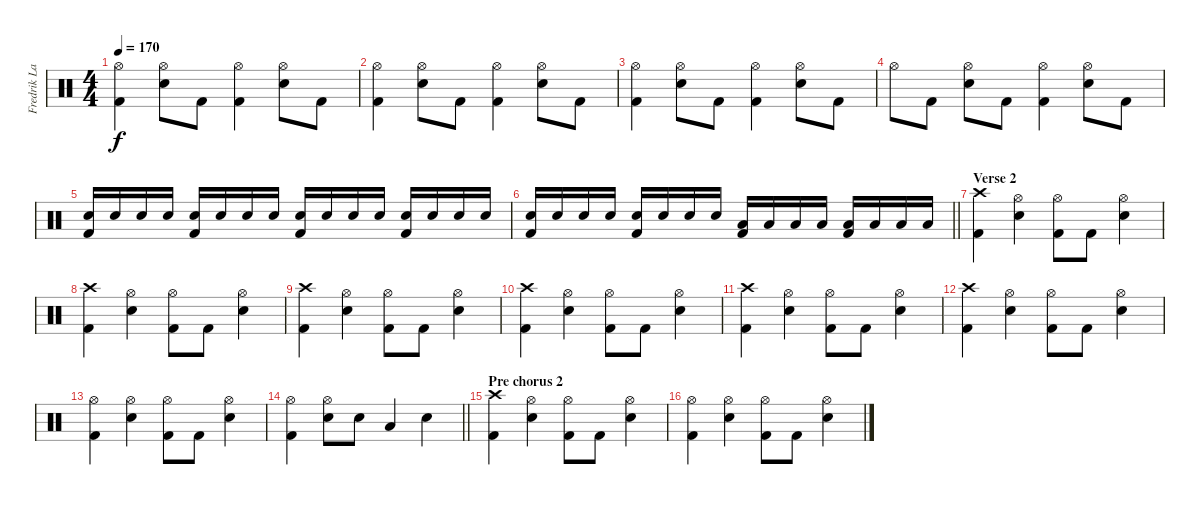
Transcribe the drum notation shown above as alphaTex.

\track ("Fredrik Larzon" "Fredrik La") {instrument percussion}
\staff {score}
\articulation defaults
\ts (4 4)
\tempo 170
\clef neutral
\ks c
("Hi-Hat (open)" "Kick (hit) 2").4{dy f} ("Hi-Hat (open)" "Electric Snare (hit)").8 "Kick (hit) 2".8 ("Hi-Hat (open)" "Kick (hit) 2").4 ("Hi-Hat (open)" "Electric Snare (hit)").8 "Kick (hit) 2".8 |
("Hi-Hat (open)" "Kick (hit) 2").4 ("Hi-Hat (open)" "Electric Snare (hit)").8 "Kick (hit) 2".8 ("Hi-Hat (open)" "Kick (hit) 2").4 ("Hi-Hat (open)" "Electric Snare (hit)").8 "Kick (hit) 2".8 |
("Hi-Hat (open)" "Kick (hit) 2").4 ("Hi-Hat (open)" "Electric Snare (hit)").8 "Kick (hit) 2".8 ("Hi-Hat (open)" "Kick (hit) 2").4 ("Hi-Hat (open)" "Electric Snare (hit)").8 "Kick (hit) 2".8 |
"Hi-Hat (open)".8 "Kick (hit) 2".8 ("Hi-Hat (open)" "Electric Snare (hit)").8 "Kick (hit) 2".8 ("Hi-Hat (open)" "Kick (hit) 2").4 ("Hi-Hat (open)" "Electric Snare (hit)").8 "Kick (hit) 2".8 |
("Electric Snare (hit)" "Kick (hit) 2").16 "Electric Snare (hit)".16 "Electric Snare (hit)".16 "Electric Snare (hit)".16 ("Electric Snare (hit)" "Kick (hit) 2").16 "Electric Snare (hit)".16 "Electric Snare (hit)".16 "Electric Snare (hit)".16 ("Electric Snare (hit)" "Kick (hit) 2").16 "Electric Snare (hit)".16 "Electric Snare (hit)".16 "Electric Snare (hit)".16 ("Electric Snare (hit)" "Kick (hit) 2").16 "Electric Snare (hit)".16 "Electric Snare (hit)".16 "Electric Snare (hit)".16 |
\barLineRight lightlight
("Electric Snare (hit)" "Kick (hit) 2").16 "Electric Snare (hit)".16 "Electric Snare (hit)".16 "Electric Snare (hit)".16 ("Electric Snare (hit)" "Kick (hit) 2").16 "Electric Snare (hit)".16 "Electric Snare (hit)".16 "Electric Snare (hit)".16 ("Kick (hit) 2" "Low Tom (hit)").16 "Low Tom (hit)".16 "Low Tom (hit)".16 "Low Tom (hit)".16 ("Kick (hit) 2" "Low Floor Tom (hit)").16 "Low Floor Tom (hit)".16 "Low Floor Tom (hit)".16 "Low Floor Tom (hit)".16 |
\section ("" "Verse 2")
("Crash high (hit)" "Kick (hit) 2").4 ("Hi-Hat (open)" "Electric Snare (hit)").4 ("Hi-Hat (open)" "Kick (hit) 2").8 "Kick (hit) 2".8 ("Hi-Hat (open)" "Electric Snare (hit)").4 |
("Crash high (hit)" "Kick (hit) 2").4 ("Hi-Hat (open)" "Electric Snare (hit)").4 ("Hi-Hat (open)" "Kick (hit) 2").8 "Kick (hit) 2".8 ("Hi-Hat (open)" "Electric Snare (hit)").4 |
("Crash high (hit)" "Kick (hit) 2").4 ("Hi-Hat (open)" "Electric Snare (hit)").4 ("Hi-Hat (open)" "Kick (hit) 2").8 "Kick (hit) 2".8 ("Hi-Hat (open)" "Electric Snare (hit)").4 |
("Crash high (hit)" "Kick (hit) 2").4 ("Hi-Hat (open)" "Electric Snare (hit)").4 ("Hi-Hat (open)" "Kick (hit) 2").8 "Kick (hit) 2".8 ("Hi-Hat (open)" "Electric Snare (hit)").4 |
("Crash high (hit)" "Kick (hit) 2").4 ("Hi-Hat (open)" "Electric Snare (hit)").4 ("Hi-Hat (open)" "Kick (hit) 2").8 "Kick (hit) 2".8 ("Hi-Hat (open)" "Electric Snare (hit)").4 |
("Crash high (hit)" "Kick (hit) 2").4 ("Hi-Hat (open)" "Electric Snare (hit)").4 ("Hi-Hat (open)" "Kick (hit) 2").8 "Kick (hit) 2".8 ("Hi-Hat (open)" "Electric Snare (hit)").4 |
("Hi-Hat (open)" "Kick (hit) 2").4 ("Hi-Hat (open)" "Electric Snare (hit)").4 ("Hi-Hat (open)" "Kick (hit) 2").8 "Kick (hit) 2".8 ("Hi-Hat (open)" "Electric Snare (hit)").4 |
\barLineRight lightlight
("Hi-Hat (open)" "Kick (hit) 2").4 ("Hi-Hat (open)" "Electric Snare (hit)").8 "Electric Snare (hit)".8 "Low Tom (hit)".4 "Electric Snare (hit)".4 |
\section ("" "Pre chorus 2")
("Crash high (hit)" "Kick (hit) 2").4 ("Hi-Hat (open)" "Electric Snare (hit)").4 ("Hi-Hat (open)" "Kick (hit) 2").8 "Kick (hit) 2".8 ("Hi-Hat (open)" "Electric Snare (hit)").4 |
("Hi-Hat (open)" "Kick (hit) 2").4 ("Hi-Hat (open)" "Electric Snare (hit)").4 ("Hi-Hat (open)" "Kick (hit) 2").8 "Kick (hit) 2".8 ("Hi-Hat (open)" "Electric Snare (hit)").4
